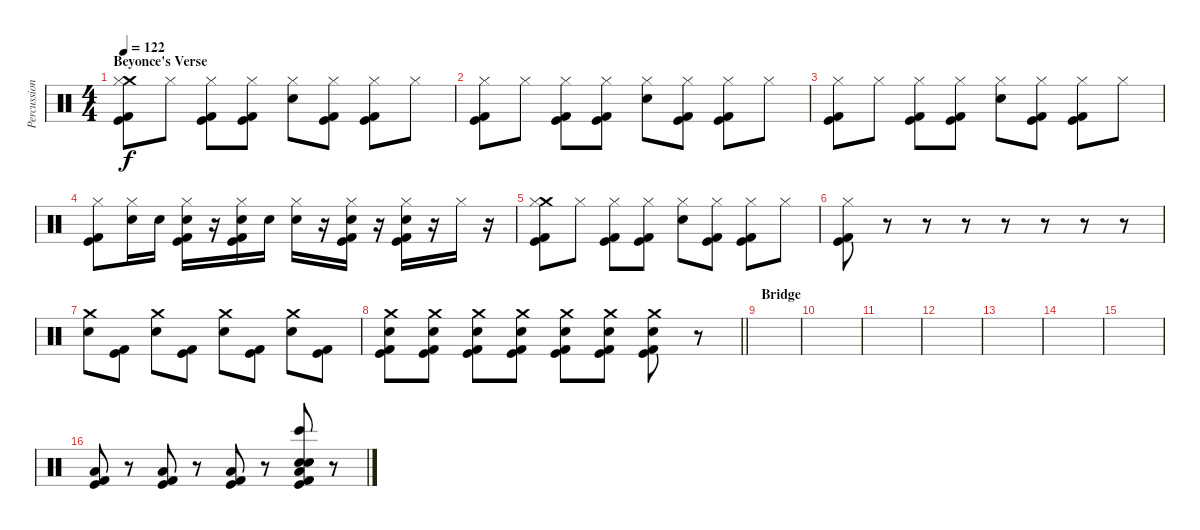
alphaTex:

\track ("Percussion" "Percussion") {instrument percussion}
\staff {score}
\articulation defaults
\ts (4 4)
\section ("" "Beyonce's Verse")
\tempo 122
\clef neutral
\ks c
("Crash medium (hit)" "Hi-Hat (closed)" "Kick (hit) 2" "Kick (hit)").8{dy f} "Hi-Hat (closed)".8 ("Hi-Hat (closed)" "Kick (hit) 2" "Kick (hit)").8 ("Hi-Hat (closed)" "Kick (hit) 2" "Kick (hit)").8 ("Hi-Hat (closed)" "Snare (hit) 2").8 ("Hi-Hat (closed)" "Kick (hit) 2" "Kick (hit)").8 ("Hi-Hat (closed)" "Kick (hit) 2" "Kick (hit)").8 "Hi-Hat (closed)".8 |
("Hi-Hat (closed)" "Kick (hit) 2" "Kick (hit)").8 "Hi-Hat (closed)".8 ("Hi-Hat (closed)" "Kick (hit) 2" "Kick (hit)").8 ("Hi-Hat (closed)" "Kick (hit) 2" "Kick (hit)").8 ("Hi-Hat (closed)" "Snare (hit) 2").8 ("Hi-Hat (closed)" "Kick (hit) 2" "Kick (hit)").8 ("Hi-Hat (closed)" "Kick (hit) 2" "Kick (hit)").8 "Hi-Hat (closed)".8 |
("Hi-Hat (closed)" "Kick (hit) 2" "Kick (hit)").8 "Hi-Hat (closed)".8 ("Hi-Hat (closed)" "Kick (hit) 2" "Kick (hit)").8 ("Hi-Hat (closed)" "Kick (hit) 2" "Kick (hit)").8 ("Hi-Hat (closed)" "Snare (hit) 2").8 ("Hi-Hat (closed)" "Kick (hit) 2" "Kick (hit)").8 ("Hi-Hat (closed)" "Kick (hit) 2" "Kick (hit)").8 "Hi-Hat (closed)".8 |
("Hi-Hat (closed)" "Kick (hit) 2" "Kick (hit)").8 ("Hi-Hat (closed)" "Snare (hit) 2").16 "Snare (hit) 2".16 ("Hi-Hat (closed)" "Snare (hit) 2" "Kick (hit) 2" "Kick (hit)").16 r.16 ("Hi-Hat (closed)" "Snare (hit) 2" "Kick (hit) 2" "Kick (hit)").16 "Snare (hit) 2".16 ("Hi-Hat (closed)" "Snare (hit) 2").16 r.16 ("Hi-Hat (closed)" "Snare (hit) 2" "Kick (hit) 2" "Kick (hit)").16 r.16 ("Hi-Hat (closed)" "Snare (hit) 2" "Kick (hit) 2" "Kick (hit)").16 r.16 "Hi-Hat (closed)".16 r.16 |
("Crash medium (hit)" "Hi-Hat (closed)" "Kick (hit) 2" "Kick (hit)").8 "Hi-Hat (closed)".8 ("Hi-Hat (closed)" "Kick (hit) 2" "Kick (hit)").8 ("Hi-Hat (closed)" "Kick (hit) 2" "Kick (hit)").8 ("Hi-Hat (closed)" "Snare (hit) 2").8 ("Hi-Hat (closed)" "Kick (hit) 2" "Kick (hit)").8 ("Hi-Hat (closed)" "Kick (hit) 2" "Kick (hit)").8 "Hi-Hat (closed)".8 |
("Hi-Hat (closed)" "Kick (hit) 2" "Kick (hit)").8 r.8 r.8 r.8 r.8 r.8 r.8 r.8 |
("Crash medium (hit)" "Electric Snare (hit)").8 ("Kick (hit) 2" "Kick (hit)").8 ("Crash medium (hit)" "Electric Snare (hit)").8 ("Kick (hit) 2" "Kick (hit)").8 ("Crash medium (hit)" "Electric Snare (hit)").8 ("Kick (hit) 2" "Kick (hit)").8 ("Crash medium (hit)" "Electric Snare (hit)").8 ("Kick (hit) 2" "Kick (hit)").8 |
\barLineRight lightlight
("Crash medium (hit)" "Electric Snare (hit)" "Kick (hit) 2" "Kick (hit)").8 ("Crash medium (hit)" "Electric Snare (hit)" "Kick (hit) 2" "Kick (hit)").8 ("Crash medium (hit)" "Electric Snare (hit)" "Kick (hit) 2" "Kick (hit)").8 ("Crash medium (hit)" "Electric Snare (hit)" "Kick (hit) 2" "Kick (hit)").8 ("Crash medium (hit)" "Electric Snare (hit)" "Kick (hit) 2" "Kick (hit)").8 ("Crash medium (hit)" "Electric Snare (hit)" "Kick (hit) 2" "Kick (hit)").8 ("Crash medium (hit)" "Electric Snare (hit)" "Kick (hit) 2" "Kick (hit)").8 r.8 |
\section ("" "Bridge")
|
|
|
|
|
|
|
("Low Floor Tom (hit)" "Kick (hit) 2" "Kick (hit)").8 r.8 ("Low Floor Tom (hit)" "Kick (hit) 2" "Kick (hit)").8 r.8 ("Low Floor Tom (hit)" "Kick (hit) 2" "Kick (hit)").8 r.8 ("Low Floor Tom (hit)" "Kick (hit)" "Electric Snare (hit)" "Bongo High (hit)" "Hand Clap (hit)" "Kick (hit) 2").8 r.8
